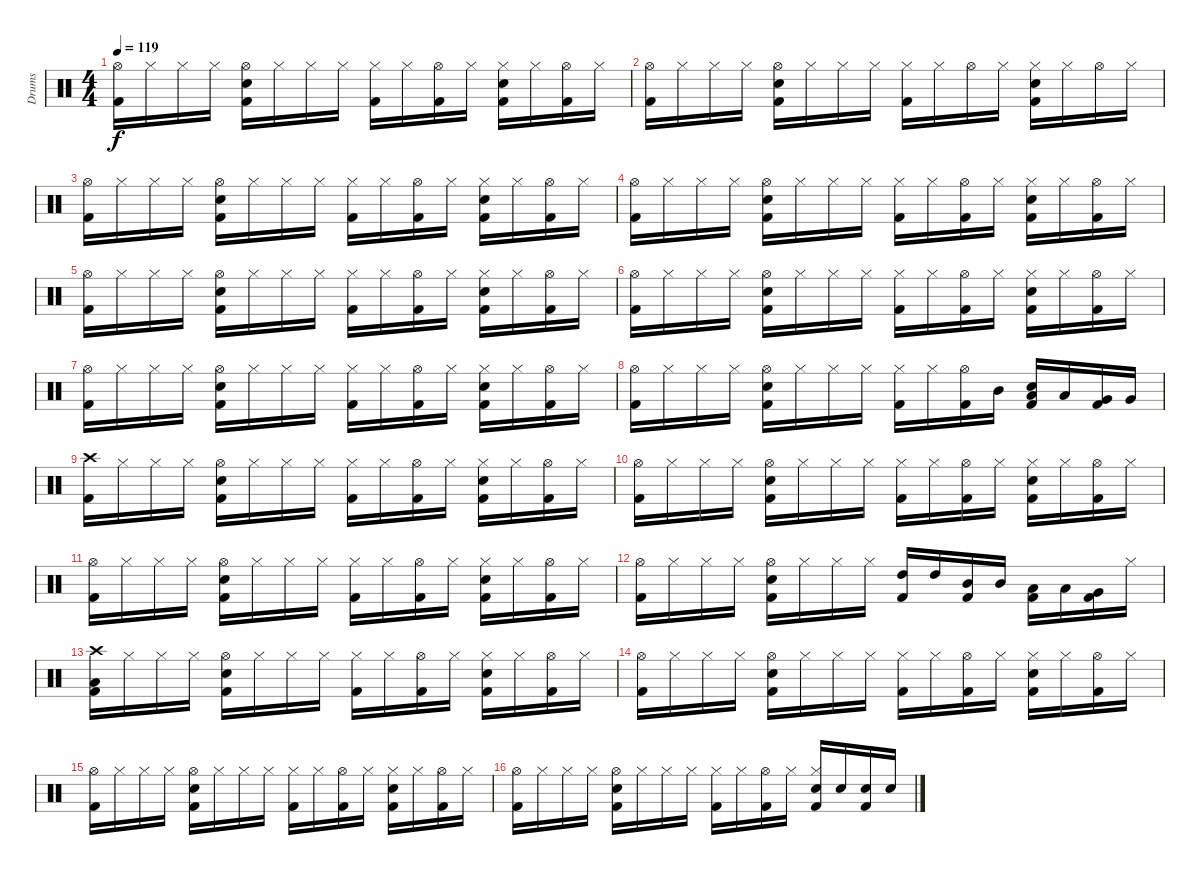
\track ("Drums" "Drums") {instrument percussion}
\staff {score}
\articulation defaults
\ts (4 4)
\tempo 119
\clef neutral
\ks c
("Hi-Hat (open)" "Kick (hit) 2").16{dy f} "Hi-Hat (closed)".16 "Hi-Hat (closed)".16 "Hi-Hat (closed)".16 ("Snare (hit) 2" "Hi-Hat (open)" "Kick (hit) 2").16 "Hi-Hat (closed)".16 "Hi-Hat (closed)".16 "Hi-Hat (closed)".16 ("Hi-Hat (closed)" "Kick (hit) 2").16 "Hi-Hat (closed)".16 ("Hi-Hat (open)" "Kick (hit) 2").16 "Hi-Hat (closed)".16 ("Snare (hit) 2" "Hi-Hat (closed)" "Kick (hit) 2").16 "Hi-Hat (closed)".16 ("Kick (hit) 2" "Hi-Hat (open)").16 "Hi-Hat (closed)".16 |
("Hi-Hat (open)" "Kick (hit) 2").16 "Hi-Hat (closed)".16 "Hi-Hat (closed)".16 "Hi-Hat (closed)".16 ("Hi-Hat (open)" "Snare (hit) 2" "Kick (hit) 2").16 "Hi-Hat (closed)".16 "Hi-Hat (closed)".16 "Hi-Hat (closed)".16 ("Hi-Hat (closed)" "Kick (hit) 2").16 "Hi-Hat (closed)".16 "Hi-Hat (open)".16 "Hi-Hat (closed)".16 ("Hi-Hat (closed)" "Kick (hit) 2" "Snare (hit) 2").16 "Hi-Hat (closed)".16 "Hi-Hat (open)".16 "Hi-Hat (closed)".16 |
("Hi-Hat (open)" "Kick (hit) 2").16 "Hi-Hat (closed)".16 "Hi-Hat (closed)".16 "Hi-Hat (closed)".16 ("Snare (hit) 2" "Hi-Hat (open)" "Kick (hit) 2").16 "Hi-Hat (closed)".16 "Hi-Hat (closed)".16 "Hi-Hat (closed)".16 ("Hi-Hat (closed)" "Kick (hit) 2").16 "Hi-Hat (closed)".16 ("Hi-Hat (open)" "Kick (hit) 2").16 "Hi-Hat (closed)".16 ("Snare (hit) 2" "Hi-Hat (closed)" "Kick (hit) 2").16 "Hi-Hat (closed)".16 ("Kick (hit) 2" "Hi-Hat (open)").16 "Hi-Hat (closed)".16 |
("Hi-Hat (open)" "Kick (hit) 2").16 "Hi-Hat (closed)".16 "Hi-Hat (closed)".16 "Hi-Hat (closed)".16 ("Hi-Hat (open)" "Snare (hit) 2" "Kick (hit) 2").16 "Hi-Hat (closed)".16 "Hi-Hat (closed)".16 "Hi-Hat (closed)".16 ("Hi-Hat (closed)" "Kick (hit) 2").16 "Hi-Hat (closed)".16 ("Kick (hit) 2" "Hi-Hat (open)").16 "Hi-Hat (closed)".16 ("Hi-Hat (closed)" "Kick (hit) 2" "Snare (hit) 2").16 "Hi-Hat (closed)".16 ("Kick (hit) 2" "Hi-Hat (open)").16 "Hi-Hat (closed)".16 |
("Hi-Hat (open)" "Kick (hit) 2").16 "Hi-Hat (closed)".16 "Hi-Hat (closed)".16 "Hi-Hat (closed)".16 ("Snare (hit) 2" "Hi-Hat (open)" "Kick (hit) 2").16 "Hi-Hat (closed)".16 "Hi-Hat (closed)".16 "Hi-Hat (closed)".16 ("Hi-Hat (closed)" "Kick (hit) 2").16 "Hi-Hat (closed)".16 ("Hi-Hat (open)" "Kick (hit) 2").16 "Hi-Hat (closed)".16 ("Snare (hit) 2" "Hi-Hat (closed)" "Kick (hit) 2").16 "Hi-Hat (closed)".16 ("Kick (hit) 2" "Hi-Hat (open)").16 "Hi-Hat (closed)".16 |
("Hi-Hat (open)" "Kick (hit) 2").16 "Hi-Hat (closed)".16 "Hi-Hat (closed)".16 "Hi-Hat (closed)".16 ("Hi-Hat (open)" "Snare (hit) 2" "Kick (hit) 2").16 "Hi-Hat (closed)".16 "Hi-Hat (closed)".16 "Hi-Hat (closed)".16 ("Hi-Hat (closed)" "Kick (hit) 2").16 "Hi-Hat (closed)".16 ("Kick (hit) 2" "Hi-Hat (open)").16 "Hi-Hat (closed)".16 ("Hi-Hat (closed)" "Kick (hit) 2" "Snare (hit) 2").16 "Hi-Hat (closed)".16 ("Kick (hit) 2" "Hi-Hat (open)").16 "Hi-Hat (closed)".16 |
("Hi-Hat (open)" "Kick (hit) 2").16 "Hi-Hat (closed)".16 "Hi-Hat (closed)".16 "Hi-Hat (closed)".16 ("Snare (hit) 2" "Hi-Hat (open)" "Kick (hit) 2").16 "Hi-Hat (closed)".16 "Hi-Hat (closed)".16 "Hi-Hat (closed)".16 ("Hi-Hat (closed)" "Kick (hit) 2").16 "Hi-Hat (closed)".16 ("Hi-Hat (open)" "Kick (hit) 2").16 "Hi-Hat (closed)".16 ("Snare (hit) 2" "Hi-Hat (closed)" "Kick (hit) 2").16 "Hi-Hat (closed)".16 ("Kick (hit) 2" "Hi-Hat (open)").16 "Hi-Hat (closed)".16 |
("Hi-Hat (open)" "Kick (hit) 2").16 "Hi-Hat (closed)".16 "Hi-Hat (closed)".16 "Hi-Hat (closed)".16 ("Hi-Hat (open)" "Snare (hit) 2" "Kick (hit) 2").16 "Hi-Hat (closed)".16 "Hi-Hat (closed)".16 "Hi-Hat (closed)".16 ("Hi-Hat (closed)" "Kick (hit) 2").16 "Hi-Hat (closed)".16 ("Kick (hit) 2" "Hi-Hat (open)").16 "Mid Tom (hit)".16 ("Low Tom (hit)" "Kick (hit) 2" "Snare (hit) 2").16 "Low Tom (hit)".16 ("Kick (hit) 2" "Very Low Tom (hit)").16 "Very Low Tom (hit)".16 |
("Crash high (hit)" "Kick (hit) 2").16 "Hi-Hat (closed)".16 "Hi-Hat (closed)".16 "Hi-Hat (closed)".16 ("Snare (hit) 2" "Hi-Hat (open)" "Kick (hit) 2").16 "Hi-Hat (closed)".16 "Hi-Hat (closed)".16 "Hi-Hat (closed)".16 ("Hi-Hat (closed)" "Kick (hit) 2").16 "Hi-Hat (closed)".16 ("Hi-Hat (open)" "Kick (hit) 2").16 "Hi-Hat (closed)".16 ("Snare (hit) 2" "Hi-Hat (closed)" "Kick (hit) 2").16 "Hi-Hat (closed)".16 ("Kick (hit) 2" "Hi-Hat (open)").16 "Hi-Hat (closed)".16 |
("Hi-Hat (open)" "Kick (hit) 2").16 "Hi-Hat (closed)".16 "Hi-Hat (closed)".16 "Hi-Hat (closed)".16 ("Hi-Hat (open)" "Snare (hit) 2" "Kick (hit) 2").16 "Hi-Hat (closed)".16 "Hi-Hat (closed)".16 "Hi-Hat (closed)".16 ("Hi-Hat (closed)" "Kick (hit) 2").16 "Hi-Hat (closed)".16 ("Kick (hit) 2" "Hi-Hat (open)").16 "Hi-Hat (closed)".16 ("Hi-Hat (closed)" "Kick (hit) 2" "Snare (hit) 2").16 "Hi-Hat (closed)".16 ("Kick (hit) 2" "Hi-Hat (open)").16 "Hi-Hat (closed)".16 |
("Hi-Hat (open)" "Kick (hit) 2").16 "Hi-Hat (closed)".16 "Hi-Hat (closed)".16 "Hi-Hat (closed)".16 ("Snare (hit) 2" "Hi-Hat (open)" "Kick (hit) 2").16 "Hi-Hat (closed)".16 "Hi-Hat (closed)".16 "Hi-Hat (closed)".16 ("Hi-Hat (closed)" "Kick (hit) 2").16 "Hi-Hat (closed)".16 ("Hi-Hat (open)" "Kick (hit) 2").16 "Hi-Hat (closed)".16 ("Snare (hit) 2" "Hi-Hat (closed)" "Kick (hit) 2").16 "Hi-Hat (closed)".16 ("Kick (hit) 2" "Hi-Hat (open)").16 "Hi-Hat (closed)".16 |
("Hi-Hat (open)" "Kick (hit) 2").16 "Hi-Hat (closed)".16 "Hi-Hat (closed)".16 "Hi-Hat (closed)".16 ("Hi-Hat (open)" "Snare (hit) 2" "Kick (hit) 2").16 "Hi-Hat (closed)".16 "Hi-Hat (closed)".16 "Hi-Hat (closed)".16 ("High Tom (hit)" "Kick (hit) 2").16 "High Tom (hit)".16 ("Kick (hit) 2" "Mid Tom (hit)").16 "Mid Tom (hit)".16 ("Low Tom (hit)" "Kick (hit) 2").16 "Low Tom (hit)".16 ("Kick (hit) 2" "Very Low Tom (hit)").16 "Hi-Hat (closed)".16 |
("Low Floor Tom (hit)" "Crash high (hit)" "Kick (hit) 2").16 "Hi-Hat (closed)".16 "Hi-Hat (closed)".16 "Hi-Hat (closed)".16 ("Snare (hit) 2" "Hi-Hat (open)" "Kick (hit) 2").16 "Hi-Hat (closed)".16 "Hi-Hat (closed)".16 "Hi-Hat (closed)".16 ("Hi-Hat (closed)" "Kick (hit) 2").16 "Hi-Hat (closed)".16 ("Hi-Hat (open)" "Kick (hit) 2").16 "Hi-Hat (closed)".16 ("Snare (hit) 2" "Hi-Hat (closed)" "Kick (hit) 2").16 "Hi-Hat (closed)".16 ("Kick (hit) 2" "Hi-Hat (open)").16 "Hi-Hat (closed)".16 |
("Hi-Hat (open)" "Kick (hit) 2").16 "Hi-Hat (closed)".16 "Hi-Hat (closed)".16 "Hi-Hat (closed)".16 ("Hi-Hat (open)" "Snare (hit) 2" "Kick (hit) 2").16 "Hi-Hat (closed)".16 "Hi-Hat (closed)".16 "Hi-Hat (closed)".16 ("Hi-Hat (closed)" "Kick (hit) 2").16 "Hi-Hat (closed)".16 ("Kick (hit) 2" "Hi-Hat (open)").16 "Hi-Hat (closed)".16 ("Hi-Hat (closed)" "Kick (hit) 2" "Snare (hit) 2").16 "Hi-Hat (closed)".16 ("Kick (hit) 2" "Hi-Hat (open)").16 "Hi-Hat (closed)".16 |
("Hi-Hat (open)" "Kick (hit) 2").16 "Hi-Hat (closed)".16 "Hi-Hat (closed)".16 "Hi-Hat (closed)".16 ("Snare (hit) 2" "Hi-Hat (open)" "Kick (hit) 2").16 "Hi-Hat (closed)".16 "Hi-Hat (closed)".16 "Hi-Hat (closed)".16 ("Hi-Hat (closed)" "Kick (hit) 2").16 "Hi-Hat (closed)".16 ("Hi-Hat (open)" "Kick (hit) 2").16 "Hi-Hat (closed)".16 ("Snare (hit) 2" "Hi-Hat (closed)" "Kick (hit) 2").16 "Hi-Hat (closed)".16 ("Kick (hit) 2" "Hi-Hat (open)").16 "Hi-Hat (closed)".16 |
("Hi-Hat (open)" "Kick (hit) 2").16 "Hi-Hat (closed)".16 "Hi-Hat (closed)".16 "Hi-Hat (closed)".16 ("Hi-Hat (open)" "Snare (hit) 2" "Kick (hit) 2").16 "Hi-Hat (closed)".16 "Hi-Hat (closed)".16 "Hi-Hat (closed)".16 ("Hi-Hat (closed)" "Kick (hit) 2").16 "Hi-Hat (closed)".16 ("Kick (hit) 2" "Hi-Hat (open)").16 "Hi-Hat (closed)".16 ("Hi-Hat (closed)" "Kick (hit) 2" "Snare (hit) 2").16 "Snare (hit) 2".16 ("Kick (hit) 2" "Snare (hit) 2").16 "Snare (hit) 2".16
